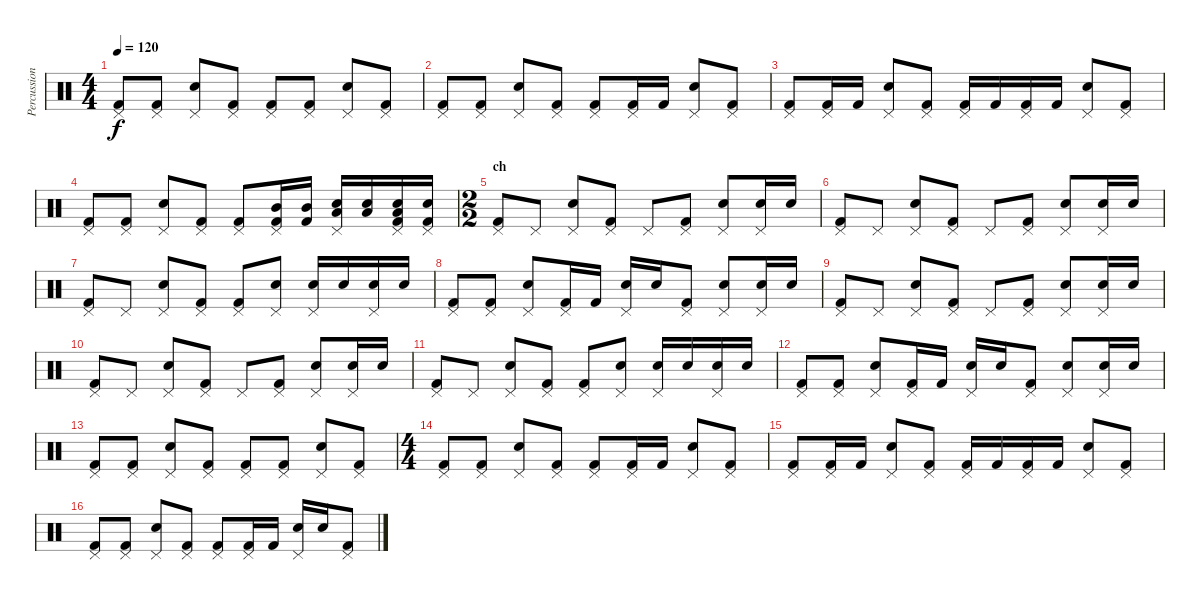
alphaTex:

\track ("Percussion" "Percussion") {instrument percussion}
\staff {score}
\articulation defaults
\ts (4 4)
\tempo 120
\clef neutral
\ks c
("Kick (hit) 2" "Pedal Hi-Hat (hit)").8{dy f} ("Kick (hit) 2" "Pedal Hi-Hat (hit)").8 ("Electric Snare (hit)" "Pedal Hi-Hat (hit)").8 ("Kick (hit) 2" "Pedal Hi-Hat (hit)").8 ("Kick (hit) 2" "Pedal Hi-Hat (hit)").8 ("Kick (hit) 2" "Pedal Hi-Hat (hit)").8 ("Electric Snare (hit)" "Pedal Hi-Hat (hit)").8 ("Kick (hit) 2" "Pedal Hi-Hat (hit)").8 |
("Kick (hit) 2" "Pedal Hi-Hat (hit)").8 ("Kick (hit) 2" "Pedal Hi-Hat (hit)").8 ("Electric Snare (hit)" "Pedal Hi-Hat (hit)").8 ("Kick (hit) 2" "Pedal Hi-Hat (hit)").8 ("Kick (hit) 2" "Pedal Hi-Hat (hit)").8 ("Kick (hit) 2" "Pedal Hi-Hat (hit)").16 "Kick (hit) 2".16 ("Electric Snare (hit)" "Pedal Hi-Hat (hit)").8 ("Kick (hit) 2" "Pedal Hi-Hat (hit)").8 |
("Kick (hit) 2" "Pedal Hi-Hat (hit)").8 ("Kick (hit) 2" "Pedal Hi-Hat (hit)").16 "Kick (hit) 2".16 ("Electric Snare (hit)" "Pedal Hi-Hat (hit)").8 ("Kick (hit) 2" "Pedal Hi-Hat (hit)").8 ("Kick (hit) 2" "Pedal Hi-Hat (hit)").16 "Kick (hit) 2".16 ("Kick (hit) 2" "Pedal Hi-Hat (hit)").16 "Kick (hit) 2".16 ("Electric Snare (hit)" "Pedal Hi-Hat (hit)").8 ("Kick (hit) 2" "Pedal Hi-Hat (hit)").8 |
("Kick (hit) 2" "Pedal Hi-Hat (hit)").8 ("Kick (hit) 2" "Pedal Hi-Hat (hit)").8 ("Electric Snare (hit)" "Pedal Hi-Hat (hit)").8 ("Kick (hit) 2" "Pedal Hi-Hat (hit)").8 ("Kick (hit) 2" "Pedal Hi-Hat (hit)").8 ("Kick (hit) 2" "Pedal Hi-Hat (hit)" "Mid Tom (hit)").16 ("Kick (hit) 2" "Mid Tom (hit)").16 ("Electric Snare (hit)" "Pedal Hi-Hat (hit)" "Low Tom (hit)").16 ("Electric Snare (hit)" "Low Tom (hit)").16 ("Electric Snare (hit)" "Kick (hit) 2" "Pedal Hi-Hat (hit)" "Low Tom (hit)").16 ("Electric Snare (hit)" "Kick (hit) 2" "Pedal Hi-Hat (hit)").16 |
\ts (2 2)
\section ("" "ch")
("Kick (hit) 2" "Pedal Hi-Hat (hit)").8 "Pedal Hi-Hat (hit)".8 ("Electric Snare (hit)" "Pedal Hi-Hat (hit)").8 ("Kick (hit) 2" "Pedal Hi-Hat (hit)").8 "Pedal Hi-Hat (hit)".8 ("Kick (hit) 2" "Pedal Hi-Hat (hit)").8 ("Electric Snare (hit)" "Pedal Hi-Hat (hit)").8 ("Electric Snare (hit)" "Pedal Hi-Hat (hit)").16 "Electric Snare (hit)".16 |
("Kick (hit) 2" "Pedal Hi-Hat (hit)").8 "Pedal Hi-Hat (hit)".8 ("Electric Snare (hit)" "Pedal Hi-Hat (hit)").8 ("Kick (hit) 2" "Pedal Hi-Hat (hit)").8 "Pedal Hi-Hat (hit)".8 ("Kick (hit) 2" "Pedal Hi-Hat (hit)").8 ("Electric Snare (hit)" "Pedal Hi-Hat (hit)").8 ("Electric Snare (hit)" "Pedal Hi-Hat (hit)").16 "Electric Snare (hit)".16 |
("Kick (hit) 2" "Pedal Hi-Hat (hit)").8 "Pedal Hi-Hat (hit)".8 ("Electric Snare (hit)" "Pedal Hi-Hat (hit)").8 ("Kick (hit) 2" "Pedal Hi-Hat (hit)").8 ("Kick (hit) 2" "Pedal Hi-Hat (hit)").8 ("Electric Snare (hit)" "Pedal Hi-Hat (hit)").8 ("Electric Snare (hit)" "Pedal Hi-Hat (hit)").16 "Electric Snare (hit)".16 ("Electric Snare (hit)" "Pedal Hi-Hat (hit)").16 "Electric Snare (hit)".16 |
("Kick (hit) 2" "Pedal Hi-Hat (hit)").8 ("Kick (hit) 2" "Pedal Hi-Hat (hit)").8 ("Electric Snare (hit)" "Pedal Hi-Hat (hit)").8 ("Kick (hit) 2" "Pedal Hi-Hat (hit)").16 "Kick (hit) 2".16 ("Electric Snare (hit)" "Pedal Hi-Hat (hit)").16 "Electric Snare (hit)".16 ("Kick (hit) 2" "Pedal Hi-Hat (hit)").8 ("Electric Snare (hit)" "Pedal Hi-Hat (hit)").8 ("Electric Snare (hit)" "Pedal Hi-Hat (hit)").16 "Electric Snare (hit)".16 |
("Kick (hit) 2" "Pedal Hi-Hat (hit)").8 "Pedal Hi-Hat (hit)".8 ("Electric Snare (hit)" "Pedal Hi-Hat (hit)").8 ("Kick (hit) 2" "Pedal Hi-Hat (hit)").8 "Pedal Hi-Hat (hit)".8 ("Kick (hit) 2" "Pedal Hi-Hat (hit)").8 ("Electric Snare (hit)" "Pedal Hi-Hat (hit)").8 ("Electric Snare (hit)" "Pedal Hi-Hat (hit)").16 "Electric Snare (hit)".16 |
("Kick (hit) 2" "Pedal Hi-Hat (hit)").8 "Pedal Hi-Hat (hit)".8 ("Electric Snare (hit)" "Pedal Hi-Hat (hit)").8 ("Kick (hit) 2" "Pedal Hi-Hat (hit)").8 "Pedal Hi-Hat (hit)".8 ("Kick (hit) 2" "Pedal Hi-Hat (hit)").8 ("Electric Snare (hit)" "Pedal Hi-Hat (hit)").8 ("Electric Snare (hit)" "Pedal Hi-Hat (hit)").16 "Electric Snare (hit)".16 |
("Kick (hit) 2" "Pedal Hi-Hat (hit)").8 "Pedal Hi-Hat (hit)".8 ("Electric Snare (hit)" "Pedal Hi-Hat (hit)").8 ("Kick (hit) 2" "Pedal Hi-Hat (hit)").8 ("Kick (hit) 2" "Pedal Hi-Hat (hit)").8 ("Electric Snare (hit)" "Pedal Hi-Hat (hit)").8 ("Electric Snare (hit)" "Pedal Hi-Hat (hit)").16 "Electric Snare (hit)".16 ("Electric Snare (hit)" "Pedal Hi-Hat (hit)").16 "Electric Snare (hit)".16 |
("Kick (hit) 2" "Pedal Hi-Hat (hit)").8 ("Kick (hit) 2" "Pedal Hi-Hat (hit)").8 ("Electric Snare (hit)" "Pedal Hi-Hat (hit)").8 ("Kick (hit) 2" "Pedal Hi-Hat (hit)").16 "Kick (hit) 2".16 ("Electric Snare (hit)" "Pedal Hi-Hat (hit)").16 "Electric Snare (hit)".16 ("Kick (hit) 2" "Pedal Hi-Hat (hit)").8 ("Electric Snare (hit)" "Pedal Hi-Hat (hit)").8 ("Electric Snare (hit)" "Pedal Hi-Hat (hit)").16 "Electric Snare (hit)".16 |
("Kick (hit) 2" "Pedal Hi-Hat (hit)").8 ("Kick (hit) 2" "Pedal Hi-Hat (hit)").8 ("Electric Snare (hit)" "Pedal Hi-Hat (hit)").8 ("Kick (hit) 2" "Pedal Hi-Hat (hit)").8 ("Kick (hit) 2" "Pedal Hi-Hat (hit)").8 ("Kick (hit) 2" "Pedal Hi-Hat (hit)").8 ("Electric Snare (hit)" "Pedal Hi-Hat (hit)").8 ("Kick (hit) 2" "Pedal Hi-Hat (hit)").8 |
\ts (4 4)
("Kick (hit) 2" "Pedal Hi-Hat (hit)").8 ("Kick (hit) 2" "Pedal Hi-Hat (hit)").8 ("Electric Snare (hit)" "Pedal Hi-Hat (hit)").8 ("Kick (hit) 2" "Pedal Hi-Hat (hit)").8 ("Kick (hit) 2" "Pedal Hi-Hat (hit)").8 ("Kick (hit) 2" "Pedal Hi-Hat (hit)").16 "Kick (hit) 2".16 ("Electric Snare (hit)" "Pedal Hi-Hat (hit)").8 ("Kick (hit) 2" "Pedal Hi-Hat (hit)").8 |
("Kick (hit) 2" "Pedal Hi-Hat (hit)").8 ("Kick (hit) 2" "Pedal Hi-Hat (hit)").16 "Kick (hit) 2".16 ("Electric Snare (hit)" "Pedal Hi-Hat (hit)").8 ("Kick (hit) 2" "Pedal Hi-Hat (hit)").8 ("Kick (hit) 2" "Pedal Hi-Hat (hit)").16 "Kick (hit) 2".16 ("Kick (hit) 2" "Pedal Hi-Hat (hit)").16 "Kick (hit) 2".16 ("Electric Snare (hit)" "Pedal Hi-Hat (hit)").8 ("Kick (hit) 2" "Pedal Hi-Hat (hit)").8 |
("Kick (hit) 2" "Pedal Hi-Hat (hit)").8 ("Kick (hit) 2" "Pedal Hi-Hat (hit)").8 ("Electric Snare (hit)" "Pedal Hi-Hat (hit)").8 ("Kick (hit) 2" "Pedal Hi-Hat (hit)").8 ("Kick (hit) 2" "Pedal Hi-Hat (hit)").8 ("Kick (hit) 2" "Pedal Hi-Hat (hit)").16 "Kick (hit) 2".16 ("Electric Snare (hit)" "Pedal Hi-Hat (hit)").16 "Electric Snare (hit)".16 ("Kick (hit) 2" "Pedal Hi-Hat (hit)").8
